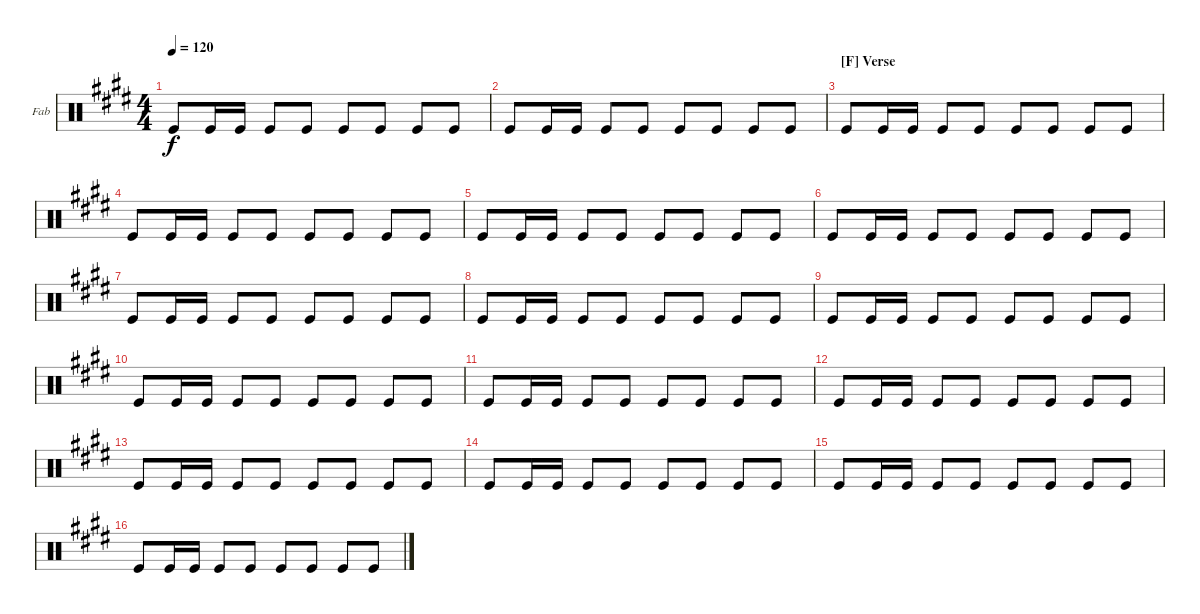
\bracketExtendMode groupsimilarinstruments
\firstSystemTrackNameOrientation horizontal
\otherSystemsTrackNameOrientation horizontal
\track ("Pipe" "Fab") {instrument percussion}
\staff {score}
\articulation defaults
\ts (4 4)
\tempo 120
\clef neutral
\scale
0.333333
\ks e "Kick (hit)".8{dy f} "Kick (hit)".16 "Kick (hit)".16 "Kick (hit)".8 "Kick (hit)".8 "Kick (hit)".8 "Kick (hit)".8 "Kick (hit)".8 "Kick (hit)".8
|
\scale
0.333333 "Kick (hit)".8 "Kick (hit)".16 "Kick (hit)".16 "Kick (hit)".8 "Kick (hit)".8 "Kick (hit)".8 "Kick (hit)".8 "Kick (hit)".8 "Kick (hit)".8 |
\section ("F" "Verse")
\scale
0.333333 "Kick (hit)".8 "Kick (hit)".16 "Kick (hit)".16 "Kick (hit)".8 "Kick (hit)".8 "Kick (hit)".8 "Kick (hit)".8 "Kick (hit)".8 "Kick (hit)".8 |
\scale
0.333333 "Kick (hit)".8 "Kick (hit)".16 "Kick (hit)".16 "Kick (hit)".8 "Kick (hit)".8 "Kick (hit)".8 "Kick (hit)".8 "Kick (hit)".8 "Kick (hit)".8 |
\scale
0.333333 "Kick (hit)".8 "Kick (hit)".16 "Kick (hit)".16 "Kick (hit)".8 "Kick (hit)".8 "Kick (hit)".8 "Kick (hit)".8 "Kick (hit)".8 "Kick (hit)".8 |
\scale
0.333333 "Kick (hit)".8 "Kick (hit)".16 "Kick (hit)".16 "Kick (hit)".8 "Kick (hit)".8 "Kick (hit)".8 "Kick (hit)".8 "Kick (hit)".8 "Kick (hit)".8 |
\scale
0.333333 "Kick (hit)".8 "Kick (hit)".16 "Kick (hit)".16 "Kick (hit)".8 "Kick (hit)".8 "Kick (hit)".8 "Kick (hit)".8 "Kick (hit)".8 "Kick (hit)".8 |
\scale
0.333333 "Kick (hit)".8 "Kick (hit)".16 "Kick (hit)".16 "Kick (hit)".8 "Kick (hit)".8 "Kick (hit)".8 "Kick (hit)".8 "Kick (hit)".8 "Kick (hit)".8 |
\scale
0.333333 "Kick (hit)".8 "Kick (hit)".16 "Kick (hit)".16 "Kick (hit)".8 "Kick (hit)".8 "Kick (hit)".8 "Kick (hit)".8 "Kick (hit)".8 "Kick (hit)".8 |
\scale
0.333333 "Kick (hit)".8 "Kick (hit)".16 "Kick (hit)".16 "Kick (hit)".8 "Kick (hit)".8 "Kick (hit)".8 "Kick (hit)".8 "Kick (hit)".8 "Kick (hit)".8 |
\scale
0.333333 "Kick (hit)".8 "Kick (hit)".16 "Kick (hit)".16 "Kick (hit)".8 "Kick (hit)".8 "Kick (hit)".8 "Kick (hit)".8 "Kick (hit)".8 "Kick (hit)".8 |
\scale
0.333333 "Kick (hit)".8 "Kick (hit)".16 "Kick (hit)".16 "Kick (hit)".8 "Kick (hit)".8 "Kick (hit)".8 "Kick (hit)".8 "Kick (hit)".8 "Kick (hit)".8 |
\scale
0.333333 "Kick (hit)".8 "Kick (hit)".16 "Kick (hit)".16 "Kick (hit)".8 "Kick (hit)".8 "Kick (hit)".8 "Kick (hit)".8 "Kick (hit)".8 "Kick (hit)".8 |
\scale
0.333333 "Kick (hit)".8 "Kick (hit)".16 "Kick (hit)".16 "Kick (hit)".8 "Kick (hit)".8 "Kick (hit)".8 "Kick (hit)".8 "Kick (hit)".8 "Kick (hit)".8 |
\scale
0.333333 "Kick (hit)".8 "Kick (hit)".16 "Kick (hit)".16 "Kick (hit)".8 "Kick (hit)".8 "Kick (hit)".8 "Kick (hit)".8 "Kick (hit)".8 "Kick (hit)".8 |
\scale
0.333333 "Kick (hit)".8 "Kick (hit)".16 "Kick (hit)".16 "Kick (hit)".8 "Kick (hit)".8 "Kick (hit)".8 "Kick (hit)".8 "Kick (hit)".8 "Kick (hit)".8
